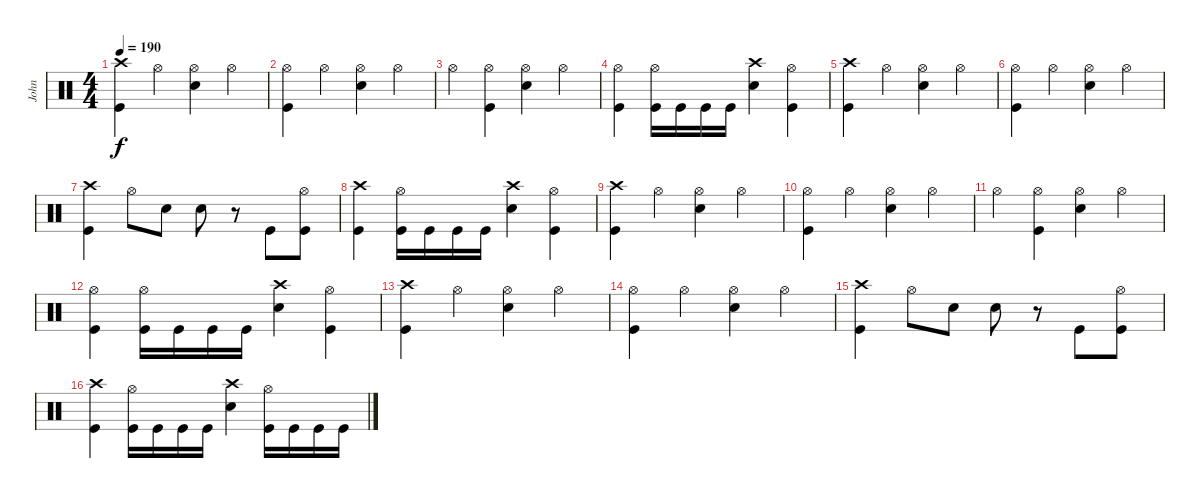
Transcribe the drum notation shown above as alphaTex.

\track ("John" "John") {instrument percussion}
\staff {score}
\articulation defaults
\ts (4 4)
\tempo 190
\clef neutral
\ks c
("Kick (hit)" "Crash high (hit)").4{dy f} "Hi-Hat (open)".4 ("Snare (hit) 2" "Hi-Hat (open)").4 "Hi-Hat (open)".4 |
("Kick (hit)" "Hi-Hat (open)").4 "Hi-Hat (open)".4 ("Snare (hit) 2" "Hi-Hat (open)").4 "Hi-Hat (open)".4 |
"Hi-Hat (open)".4 ("Kick (hit)" "Hi-Hat (open)").4 ("Snare (hit) 2" "Hi-Hat (open)").4 "Hi-Hat (open)".4 |
("Kick (hit)" "Hi-Hat (open)").4 ("Kick (hit)" "Hi-Hat (open)").16 "Kick (hit)".16 "Kick (hit)".16 "Kick (hit)".16 ("Snare (hit) 2" "Crash high (hit)").4 ("Kick (hit)" "Hi-Hat (open)").4 |
("Kick (hit)" "Crash high (hit)").4 "Hi-Hat (open)".4 ("Snare (hit) 2" "Hi-Hat (open)").4 "Hi-Hat (open)".4 |
("Kick (hit)" "Hi-Hat (open)").4 "Hi-Hat (open)".4 ("Snare (hit) 2" "Hi-Hat (open)").4 "Hi-Hat (open)".4 |
("Kick (hit)" "Crash high (hit)").4 "Hi-Hat (open)".8 "Snare (hit) 2".8 "Snare (hit) 2".8 r.8 "Kick (hit)".8 ("Hi-Hat (open)" "Kick (hit)").8 |
("Kick (hit)" "Crash high (hit)").4 ("Kick (hit)" "Hi-Hat (open)").16 "Kick (hit)".16 "Kick (hit)".16 "Kick (hit)".16 ("Snare (hit) 2" "Crash high (hit)").4 ("Kick (hit)" "Hi-Hat (open)").4 |
("Kick (hit)" "Crash high (hit)").4 "Hi-Hat (open)".4 ("Snare (hit) 2" "Hi-Hat (open)").4 "Hi-Hat (open)".4 |
("Kick (hit)" "Hi-Hat (open)").4 "Hi-Hat (open)".4 ("Snare (hit) 2" "Hi-Hat (open)").4 "Hi-Hat (open)".4 |
"Hi-Hat (open)".4 ("Kick (hit)" "Hi-Hat (open)").4 ("Snare (hit) 2" "Hi-Hat (open)").4 "Hi-Hat (open)".4 |
("Kick (hit)" "Hi-Hat (open)").4 ("Kick (hit)" "Hi-Hat (open)").16 "Kick (hit)".16 "Kick (hit)".16 "Kick (hit)".16 ("Snare (hit) 2" "Crash high (hit)").4 ("Kick (hit)" "Hi-Hat (open)").4 |
("Kick (hit)" "Crash high (hit)").4 "Hi-Hat (open)".4 ("Snare (hit) 2" "Hi-Hat (open)").4 "Hi-Hat (open)".4 |
("Kick (hit)" "Hi-Hat (open)").4 "Hi-Hat (open)".4 ("Snare (hit) 2" "Hi-Hat (open)").4 "Hi-Hat (open)".4 |
("Kick (hit)" "Crash high (hit)").4 "Hi-Hat (open)".8 "Snare (hit) 2".8 "Snare (hit) 2".8 r.8 "Kick (hit)".8 ("Hi-Hat (open)" "Kick (hit)").8 |
("Kick (hit)" "Crash high (hit)").4 ("Kick (hit)" "Hi-Hat (open)").16 "Kick (hit)".16 "Kick (hit)".16 "Kick (hit)".16 ("Snare (hit) 2" "Crash high (hit)").4 ("Kick (hit)" "Hi-Hat (open)").16 "Kick (hit)".16 "Kick (hit)".16 "Kick (hit)".16
